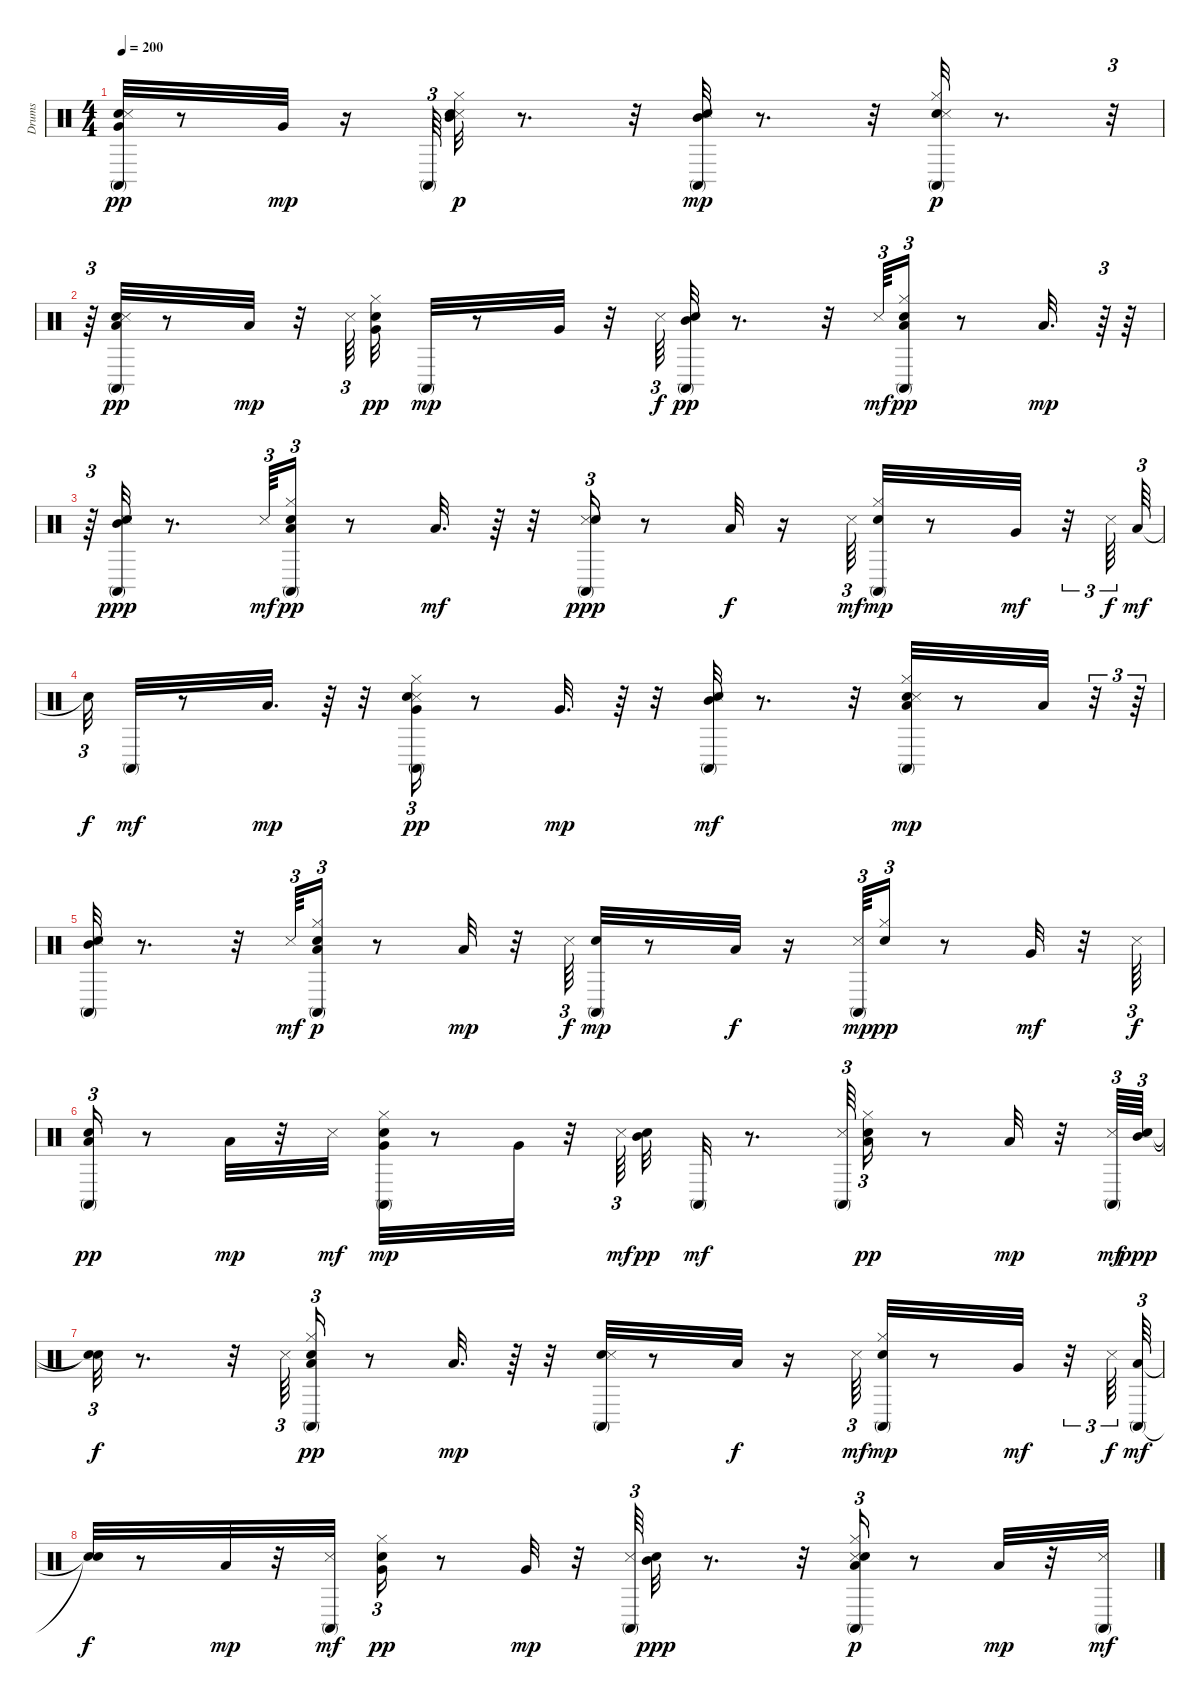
\track ("Drums" "Drums") {instrument percussion}
\staff {score}
\articulation defaults
\ts (4 4)
\tempo 200
\clef neutral
\ks c
("Very Low Tom (hit)" "Conga high (mute)" "Hand Clap (hit)" "Snare (side stick) 3").32{dy pp} r.8 "Very Low Tom (hit)".32{dy mp} r.16 "Conga high (mute)".64{tu (3 2)} ("Hi-Hat (closed)" "Mid Tom (hit)" "Snare (side stick) 3" "Hand Clap (hit)").32{dy p} r.8{d} r.32 ("Mid Tom (hit)" "Hand Clap (hit)" "Snare (side stick) 3" "Conga high (mute)").32{dy mp} r.8{d} r.32 ("Hi-Hat (closed)" "Hand Clap (hit)" "Snare (side stick) 3" "Conga high (mute)").32{dy p} r.8{d} r.32{tu (3 2)} |
r.64{tu (3 2)} ("Low Tom (hit)" "Conga high (mute)" "Hand Clap (hit)" "Snare (side stick) 3").32{dy pp} r.8 "Low Tom (hit)".32{dy mp} r.32 "Snare (side stick) 3".64{tu (3 2)} ("Hi-Hat (closed)" "Very Low Tom (hit)" "Hand Clap (hit)").32{dy pp} "Conga high (mute)".32{dy mp} r.8 "Very Low Tom (hit)".32 r.32 "Snare (side stick) 3".64{tu (3 2) dy f} ("Mid Tom (hit)" "Conga high (mute)" "Hand Clap (hit)").32{dy pp} r.8{d} r.32 "Snare (side stick) 3".64{tu (3 2) dy mf} ("Hi-Hat (closed)" "Low Tom (hit)" "Conga high (mute)" "Hand Clap (hit)").16{tu (3 2) dy pp} r.8 "Low Tom (hit)".32{d dy mp} r.64{tu (3 2)} r.64 |
r.64{tu (3 2)} ("Mid Tom (hit)" "Conga high (mute)" "Snare (side stick) 3" "Hand Clap (hit)").32{dy ppp} r.8{d} "Snare (side stick) 3".64{tu (3 2) dy mf} ("Hi-Hat (closed)" "Low Tom (hit)" "Conga high (mute)" "Hand Clap (hit)").16{tu (3 2) dy pp} r.8 "Low Tom (hit)".32{d dy mf} r.64 r.32 ("Snare (side stick) 3" "Conga high (mute)" "Hand Clap (hit)").16{tu (3 2) dy ppp} r.8 "Low Tom (hit)".32{dy f} r.16 "Snare (side stick) 3".64{tu (3 2) dy mf} ("Hi-Hat (closed)" "Hand Clap (hit)" "Conga high (mute)").32{dy mp} r.8 "Very Low Tom (hit)".32{dy mf} r.32{tu (3 2)} "Snare (side stick) 3".64{tu (3 2) dy f} "Low Tom (hit)".64{tu (3 2) dy mf} |
"Snare (hit)"{t}.32{tu (3 2) dy f} "Conga high (mute)".32{dy mf} r.8 "Low Tom (hit)".32{d dy mp} r.64 r.32 ("Hi-Hat (closed)" "Very Low Tom (hit)" "Snare (side stick) 3" "Conga high (mute)" "Hand Clap (hit)").16{tu (3 2) dy pp} r.8 "Very Low Tom (hit)".32{d dy mp} r.64 r.32 ("Mid Tom (hit)" "Hand Clap (hit)" "Conga high (mute)" "Snare (side stick) 3").32{dy mf} r.8{d} r.32 ("Hi-Hat (closed)" "Low Tom (hit)" "Hand Clap (hit)" "Snare (side stick) 3" "Conga high (mute)").32{dy mp} r.8 "Low Tom (hit)".32 r.32{tu (3 2)} r.64{tu (3 2)} |
("Mid Tom (hit)" "Snare (side stick) 3" "Hand Clap (hit)" "Conga high (mute)").32 r.8{d} r.32 "Snare (side stick) 3".64{tu (3 2) dy mf} ("Hi-Hat (closed)" "Low Tom (hit)" "Conga high (mute)" "Hand Clap (hit)").16{tu (3 2) dy p} r.8 "Low Tom (hit)".32{dy mp} r.32 "Snare (side stick) 3".64{tu (3 2) dy f} ("Hand Clap (hit)" "Conga high (mute)").32{dy mp} r.8 "Low Tom (hit)".32{dy f} r.16 ("Snare (side stick) 3" "Conga high (mute)").64{tu (3 2) dy mp} ("Hi-Hat (closed)" "Hand Clap (hit)").16{tu (3 2) dy pp} r.8 "Very Low Tom (hit)".32{dy mf} r.32 "Snare (side stick) 3".64{tu (3 2) dy f} |
("Low Tom (hit)" "Conga high (mute)" "Hand Clap (hit)").16{tu (3 2) dy pp} r.8 "Low Tom (hit)".32{dy mp} r.32 "Snare (side stick) 3".32{dy mf} ("Hi-Hat (closed)" "Very Low Tom (hit)" "Hand Clap (hit)" "Conga high (mute)").32{dy mp} r.8 "Very Low Tom (hit)".32 r.32 "Snare (side stick) 3".64{tu (3 2) dy mf} ("Mid Tom (hit)" "Hand Clap (hit)").32{dy pp} "Conga high (mute)".32{dy mf} r.8{d} ("Conga high (mute)" "Snare (side stick) 3").64{tu (3 2)} ("Hi-Hat (closed)" "Low Tom (hit)" "Hand Clap (hit)").16{tu (3 2) dy pp} r.8 "Low Tom (hit)".32{dy mp} r.32 ("Conga high (mute)" "Snare (side stick) 3").64{tu (3 2) dy mf} ("Mid Tom (hit)" "Hand Clap (hit)").64{tu (3 2) dy ppp} |
("Snare (hit)"{t} "Snare (hit)"{t}).32{tu (3 2) dy f} r.8{d} r.32 "Snare (side stick) 3".64{tu (3 2)} ("Hi-Hat (closed)" "Low Tom (hit)" "Conga high (mute)" "Hand Clap (hit)").16{tu (3 2) dy pp} r.8 "Low Tom (hit)".32{d dy mp} r.64 r.32 ("Hand Clap (hit)" "Snare (side stick) 3" "Conga high (mute)").32 r.8 "Low Tom (hit)".32{dy f} r.16 "Snare (side stick) 3".64{tu (3 2) dy mf} ("Hi-Hat (closed)" "Hand Clap (hit)" "Conga high (mute)").32{dy mp} r.8 "Very Low Tom (hit)".32{dy mf} r.32{tu (3 2)} "Snare (side stick) 3".64{tu (3 2) dy f} ("Low Tom (hit)" "Conga high (mute)").64{tu (3 2) dy mf} |
("Snare (hit)"{t} "Snare (hit)"{t}).32{dy f} r.8 "Low Tom (hit)".32{dy mp} r.32 ("Snare (side stick) 3" "Conga high (mute)").32{dy mf} ("Hi-Hat (closed)" "Very Low Tom (hit)" "Hand Clap (hit)").16{tu (3 2) dy pp} r.8 "Very Low Tom (hit)".32{dy mp} r.32 ("Snare (side stick) 3" "Conga high (mute)").64{tu (3 2)} ("Mid Tom (hit)" "Hand Clap (hit)").32{dy ppp} r.8{d} r.32 ("Snare (side stick) 3" "Conga high (mute)" "Hi-Hat (closed)" "Low Tom (hit)" "Hand Clap (hit)").16{tu (3 2) dy p} r.8 "Low Tom (hit)".32{dy mp} r.32 ("Snare (side stick) 3" "Conga high (mute)").32{dy mf}
